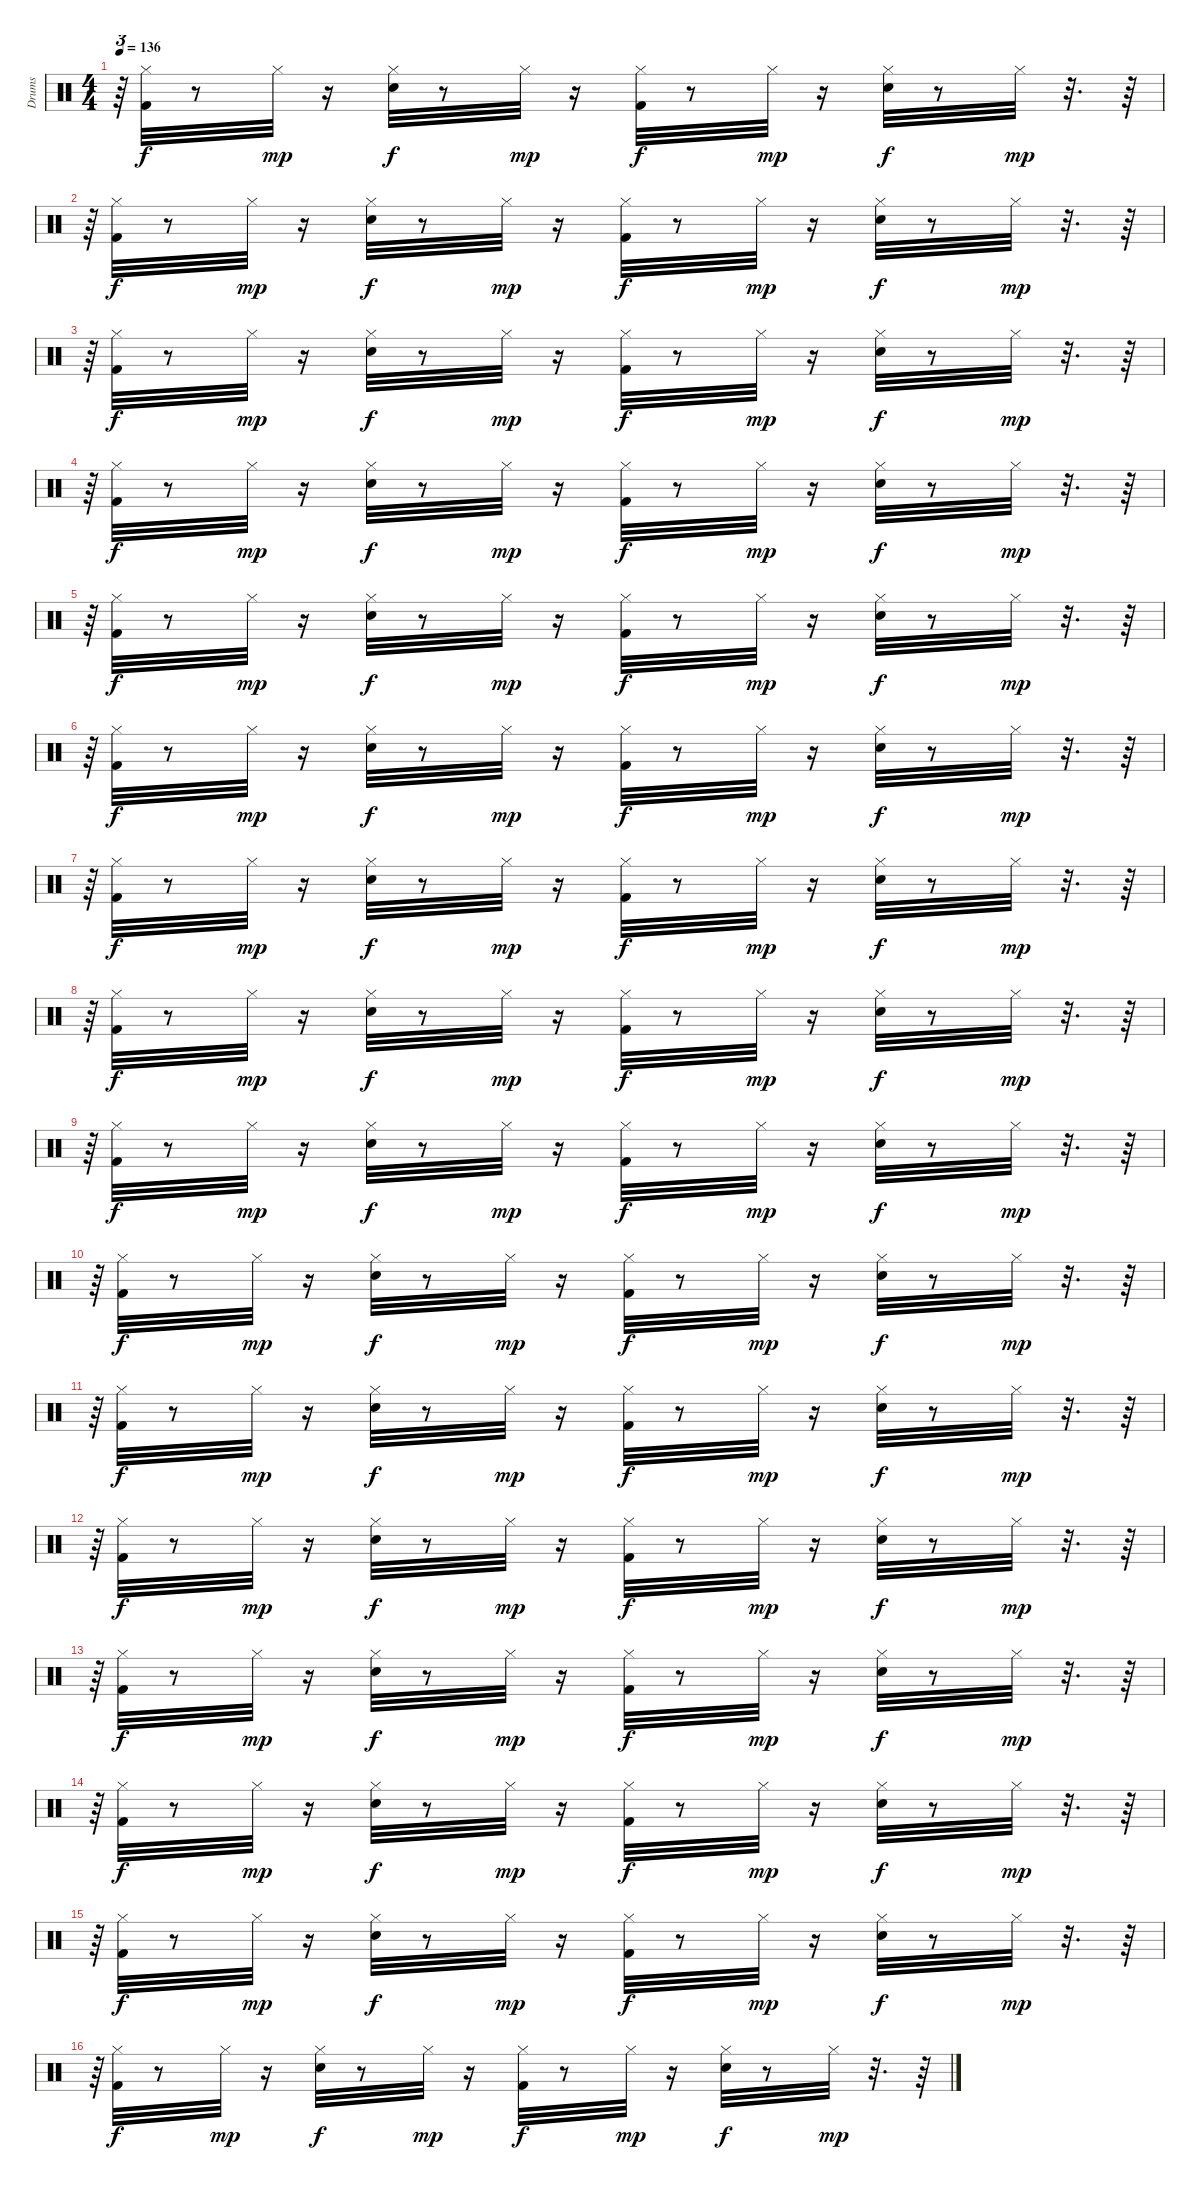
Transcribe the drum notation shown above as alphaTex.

\track ("Drums" "Drums") {instrument percussion}
\staff {score}
\articulation defaults
\ts (4 4)
\tempo 136
\clef neutral
\ks c
r.64{tu (3 2) dy mp} ("Kick (hit) 2" "Hi-Hat (closed)").32{dy f} r.8 "Hi-Hat (closed)".32{dy mp} r.16 ("Hi-Hat (closed)" "Electric Snare (hit)").32{dy f} r.8 "Hi-Hat (closed)".32{dy mp} r.16 ("Hi-Hat (closed)" "Kick (hit) 2").32{dy f} r.8 "Hi-Hat (closed)".32{dy mp} r.16 ("Hi-Hat (closed)" "Electric Snare (hit)").32{dy f} r.8 "Hi-Hat (closed)".32{dy mp} r.32{d} r.64 |
r.64{tu (3 2)} ("Kick (hit) 2" "Hi-Hat (closed)").32{dy f} r.8 "Hi-Hat (closed)".32{dy mp} r.16 ("Hi-Hat (closed)" "Electric Snare (hit)").32{dy f} r.8 "Hi-Hat (closed)".32{dy mp} r.16 ("Hi-Hat (closed)" "Kick (hit) 2").32{dy f} r.8 "Hi-Hat (closed)".32{dy mp} r.16 ("Hi-Hat (closed)" "Electric Snare (hit)").32{dy f} r.8 "Hi-Hat (closed)".32{dy mp} r.32{d} r.64 |
r.64{tu (3 2)} ("Kick (hit) 2" "Hi-Hat (closed)").32{dy f} r.8 "Hi-Hat (closed)".32{dy mp} r.16 ("Hi-Hat (closed)" "Electric Snare (hit)").32{dy f} r.8 "Hi-Hat (closed)".32{dy mp} r.16 ("Hi-Hat (closed)" "Kick (hit) 2").32{dy f} r.8 "Hi-Hat (closed)".32{dy mp} r.16 ("Hi-Hat (closed)" "Electric Snare (hit)").32{dy f} r.8 "Hi-Hat (closed)".32{dy mp} r.32{d} r.64 |
r.64{tu (3 2)} ("Kick (hit) 2" "Hi-Hat (closed)").32{dy f} r.8 "Hi-Hat (closed)".32{dy mp} r.16 ("Hi-Hat (closed)" "Electric Snare (hit)").32{dy f} r.8 "Hi-Hat (closed)".32{dy mp} r.16 ("Hi-Hat (closed)" "Kick (hit) 2").32{dy f} r.8 "Hi-Hat (closed)".32{dy mp} r.16 ("Hi-Hat (closed)" "Electric Snare (hit)").32{dy f} r.8 "Hi-Hat (closed)".32{dy mp} r.32{d} r.64 |
r.64{tu (3 2)} ("Kick (hit) 2" "Hi-Hat (closed)").32{dy f} r.8 "Hi-Hat (closed)".32{dy mp} r.16 ("Hi-Hat (closed)" "Electric Snare (hit)").32{dy f} r.8 "Hi-Hat (closed)".32{dy mp} r.16 ("Hi-Hat (closed)" "Kick (hit) 2").32{dy f} r.8 "Hi-Hat (closed)".32{dy mp} r.16 ("Hi-Hat (closed)" "Electric Snare (hit)").32{dy f} r.8 "Hi-Hat (closed)".32{dy mp} r.32{d} r.64 |
r.64{tu (3 2)} ("Kick (hit) 2" "Hi-Hat (closed)").32{dy f} r.8 "Hi-Hat (closed)".32{dy mp} r.16 ("Hi-Hat (closed)" "Electric Snare (hit)").32{dy f} r.8 "Hi-Hat (closed)".32{dy mp} r.16 ("Hi-Hat (closed)" "Kick (hit) 2").32{dy f} r.8 "Hi-Hat (closed)".32{dy mp} r.16 ("Hi-Hat (closed)" "Electric Snare (hit)").32{dy f} r.8 "Hi-Hat (closed)".32{dy mp} r.32{d} r.64 |
r.64{tu (3 2)} ("Kick (hit) 2" "Hi-Hat (closed)").32{dy f} r.8 "Hi-Hat (closed)".32{dy mp} r.16 ("Hi-Hat (closed)" "Electric Snare (hit)").32{dy f} r.8 "Hi-Hat (closed)".32{dy mp} r.16 ("Hi-Hat (closed)" "Kick (hit) 2").32{dy f} r.8 "Hi-Hat (closed)".32{dy mp} r.16 ("Hi-Hat (closed)" "Electric Snare (hit)").32{dy f} r.8 "Hi-Hat (closed)".32{dy mp} r.32{d} r.64 |
r.64{tu (3 2)} ("Kick (hit) 2" "Hi-Hat (closed)").32{dy f} r.8 "Hi-Hat (closed)".32{dy mp} r.16 ("Hi-Hat (closed)" "Electric Snare (hit)").32{dy f} r.8 "Hi-Hat (closed)".32{dy mp} r.16 ("Hi-Hat (closed)" "Kick (hit) 2").32{dy f} r.8 "Hi-Hat (closed)".32{dy mp} r.16 ("Hi-Hat (closed)" "Electric Snare (hit)").32{dy f} r.8 "Hi-Hat (closed)".32{dy mp} r.32{d} r.64 |
r.64{tu (3 2)} ("Kick (hit) 2" "Hi-Hat (closed)").32{dy f} r.8 "Hi-Hat (closed)".32{dy mp} r.16 ("Hi-Hat (closed)" "Electric Snare (hit)").32{dy f} r.8 "Hi-Hat (closed)".32{dy mp} r.16 ("Hi-Hat (closed)" "Kick (hit) 2").32{dy f} r.8 "Hi-Hat (closed)".32{dy mp} r.16 ("Hi-Hat (closed)" "Electric Snare (hit)").32{dy f} r.8 "Hi-Hat (closed)".32{dy mp} r.32{d} r.64 |
r.64{tu (3 2)} ("Kick (hit) 2" "Hi-Hat (closed)").32{dy f} r.8 "Hi-Hat (closed)".32{dy mp} r.16 ("Hi-Hat (closed)" "Electric Snare (hit)").32{dy f} r.8 "Hi-Hat (closed)".32{dy mp} r.16 ("Hi-Hat (closed)" "Kick (hit) 2").32{dy f} r.8 "Hi-Hat (closed)".32{dy mp} r.16 ("Hi-Hat (closed)" "Electric Snare (hit)").32{dy f} r.8 "Hi-Hat (closed)".32{dy mp} r.32{d} r.64 |
r.64{tu (3 2)} ("Kick (hit) 2" "Hi-Hat (closed)").32{dy f} r.8 "Hi-Hat (closed)".32{dy mp} r.16 ("Hi-Hat (closed)" "Electric Snare (hit)").32{dy f} r.8 "Hi-Hat (closed)".32{dy mp} r.16 ("Hi-Hat (closed)" "Kick (hit) 2").32{dy f} r.8 "Hi-Hat (closed)".32{dy mp} r.16 ("Hi-Hat (closed)" "Electric Snare (hit)").32{dy f} r.8 "Hi-Hat (closed)".32{dy mp} r.32{d} r.64 |
r.64{tu (3 2)} ("Kick (hit) 2" "Hi-Hat (closed)").32{dy f} r.8 "Hi-Hat (closed)".32{dy mp} r.16 ("Hi-Hat (closed)" "Electric Snare (hit)").32{dy f} r.8 "Hi-Hat (closed)".32{dy mp} r.16 ("Hi-Hat (closed)" "Kick (hit) 2").32{dy f} r.8 "Hi-Hat (closed)".32{dy mp} r.16 ("Hi-Hat (closed)" "Electric Snare (hit)").32{dy f} r.8 "Hi-Hat (closed)".32{dy mp} r.32{d} r.64 |
r.64{tu (3 2)} ("Kick (hit) 2" "Hi-Hat (closed)").32{dy f} r.8 "Hi-Hat (closed)".32{dy mp} r.16 ("Hi-Hat (closed)" "Electric Snare (hit)").32{dy f} r.8 "Hi-Hat (closed)".32{dy mp} r.16 ("Hi-Hat (closed)" "Kick (hit) 2").32{dy f} r.8 "Hi-Hat (closed)".32{dy mp} r.16 ("Hi-Hat (closed)" "Electric Snare (hit)").32{dy f} r.8 "Hi-Hat (closed)".32{dy mp} r.32{d} r.64 |
r.64{tu (3 2)} ("Kick (hit) 2" "Hi-Hat (closed)").32{dy f} r.8 "Hi-Hat (closed)".32{dy mp} r.16 ("Hi-Hat (closed)" "Electric Snare (hit)").32{dy f} r.8 "Hi-Hat (closed)".32{dy mp} r.16 ("Hi-Hat (closed)" "Kick (hit) 2").32{dy f} r.8 "Hi-Hat (closed)".32{dy mp} r.16 ("Hi-Hat (closed)" "Electric Snare (hit)").32{dy f} r.8 "Hi-Hat (closed)".32{dy mp} r.32{d} r.64 |
r.64{tu (3 2)} ("Kick (hit) 2" "Hi-Hat (closed)").32{dy f} r.8 "Hi-Hat (closed)".32{dy mp} r.16 ("Hi-Hat (closed)" "Electric Snare (hit)").32{dy f} r.8 "Hi-Hat (closed)".32{dy mp} r.16 ("Hi-Hat (closed)" "Kick (hit) 2").32{dy f} r.8 "Hi-Hat (closed)".32{dy mp} r.16 ("Hi-Hat (closed)" "Electric Snare (hit)").32{dy f} r.8 "Hi-Hat (closed)".32{dy mp} r.32{d} r.64 |
r.64{tu (3 2)} ("Kick (hit) 2" "Hi-Hat (closed)").32{dy f} r.8 "Hi-Hat (closed)".32{dy mp} r.16 ("Hi-Hat (closed)" "Electric Snare (hit)").32{dy f} r.8 "Hi-Hat (closed)".32{dy mp} r.16 ("Hi-Hat (closed)" "Kick (hit) 2").32{dy f} r.8 "Hi-Hat (closed)".32{dy mp} r.16 ("Hi-Hat (closed)" "Electric Snare (hit)").32{dy f} r.8 "Hi-Hat (closed)".32{dy mp} r.32{d} r.64
